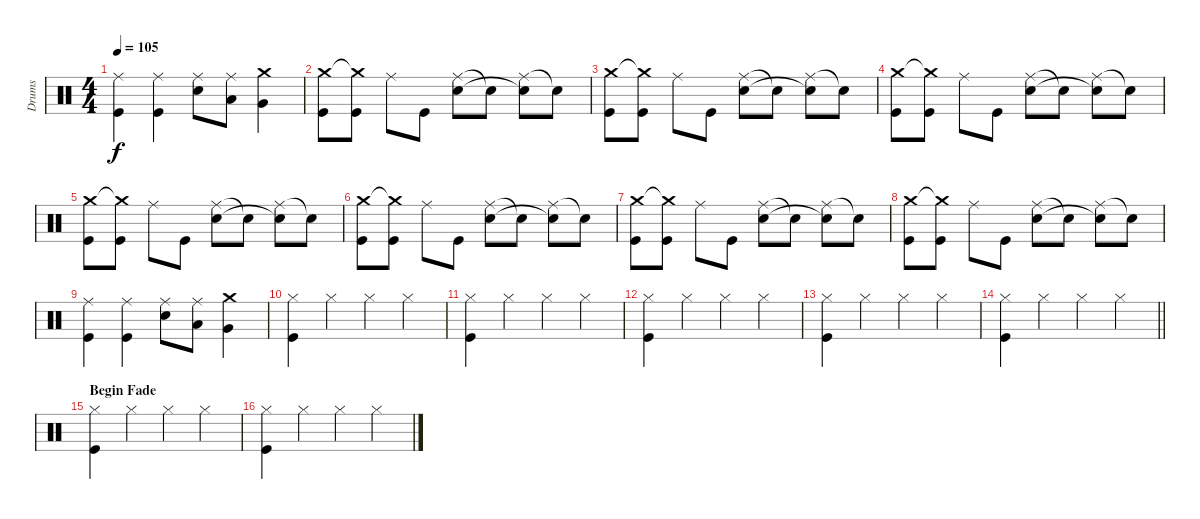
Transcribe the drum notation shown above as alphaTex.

\track ("Drums" "Drums") {instrument percussion}
\staff {score}
\articulation defaults
\ts (4 4)
\tempo 105
\clef neutral
\ks c
("Ride (middle)" "Kick (hit)").4{dy f} ("Ride (middle)" "Kick (hit)").4 ("Ride (middle)" "Snare (hit) 2").8 ("Ride (middle)" "Low Tom (hit)").8 ("Crash medium (hit)" "Very Low Tom (hit)").4 |
("Crash medium (hit)" "Kick (hit)").8 ("Crash medium (hit)"{t} "Kick (hit)").8 "Ride (middle)".8 "Kick (hit)".8 ("Ride (middle)" "Snare (hit) 2").8 "Snare (hit) 2"{t}.8 ("Ride (middle)" "Snare (hit) 2"{t}).8 "Snare (hit) 2"{t}.8 |
("Crash medium (hit)" "Kick (hit)").8 ("Crash medium (hit)"{t} "Kick (hit)").8 "Ride (middle)".8 "Kick (hit)".8 ("Ride (middle)" "Snare (hit) 2").8 "Snare (hit) 2"{t}.8 ("Ride (middle)" "Snare (hit) 2"{t}).8 "Snare (hit) 2"{t}.8 |
("Crash medium (hit)" "Kick (hit)").8 ("Crash medium (hit)"{t} "Kick (hit)").8 "Ride (middle)".8 "Kick (hit)".8 ("Ride (middle)" "Snare (hit) 2").8 "Snare (hit) 2"{t}.8 ("Ride (middle)" "Snare (hit) 2"{t}).8 "Snare (hit) 2"{t}.8 |
("Crash medium (hit)" "Kick (hit)").8 ("Crash medium (hit)"{t} "Kick (hit)").8 "Ride (middle)".8 "Kick (hit)".8 ("Ride (middle)" "Snare (hit) 2").8 "Snare (hit) 2"{t}.8 ("Ride (middle)" "Snare (hit) 2"{t}).8 "Snare (hit) 2"{t}.8 |
("Crash medium (hit)" "Kick (hit)").8 ("Crash medium (hit)"{t} "Kick (hit)").8 "Ride (middle)".8 "Kick (hit)".8 ("Ride (middle)" "Snare (hit) 2").8 "Snare (hit) 2"{t}.8 ("Ride (middle)" "Snare (hit) 2"{t}).8 "Snare (hit) 2"{t}.8 |
("Crash medium (hit)" "Kick (hit)").8 ("Crash medium (hit)"{t} "Kick (hit)").8 "Ride (middle)".8 "Kick (hit)".8 ("Ride (middle)" "Snare (hit) 2").8 "Snare (hit) 2"{t}.8 ("Ride (middle)" "Snare (hit) 2"{t}).8 "Snare (hit) 2"{t}.8 |
("Crash medium (hit)" "Kick (hit)").8 ("Crash medium (hit)"{t} "Kick (hit)").8 "Ride (middle)".8 "Kick (hit)".8 ("Ride (middle)" "Snare (hit) 2").8 "Snare (hit) 2"{t}.8 ("Ride (middle)" "Snare (hit) 2"{t}).8 "Snare (hit) 2"{t}.8 |
("Ride (middle)" "Kick (hit)").4 ("Ride (middle)" "Kick (hit)").4 ("Ride (middle)" "Snare (hit) 2").8 ("Ride (middle)" "Low Tom (hit)").8 ("Crash medium (hit)" "Very Low Tom (hit)").4 |
("Hi-Hat (closed)" "Kick (hit)").4 "Hi-Hat (closed)".4 "Hi-Hat (closed)".4 "Hi-Hat (closed)".4 |
("Hi-Hat (closed)" "Kick (hit)").4 "Hi-Hat (closed)".4 "Hi-Hat (closed)".4 "Hi-Hat (closed)".4 |
("Hi-Hat (closed)" "Kick (hit)").4 "Hi-Hat (closed)".4 "Hi-Hat (closed)".4 "Hi-Hat (closed)".4 |
("Hi-Hat (closed)" "Kick (hit)").4 "Hi-Hat (closed)".4 "Hi-Hat (closed)".4 "Hi-Hat (closed)".4 |
\barLineRight lightlight
("Hi-Hat (closed)" "Kick (hit)").4 "Hi-Hat (closed)".4 "Hi-Hat (closed)".4 "Hi-Hat (closed)".4 |
\section ("" "Begin Fade")
("Hi-Hat (closed)" "Kick (hit)").4{volume 3} "Hi-Hat (closed)".4 "Hi-Hat (closed)".4 "Hi-Hat (closed)".4 |
("Hi-Hat (closed)" "Kick (hit)").4 "Hi-Hat (closed)".4 "Hi-Hat (closed)".4 "Hi-Hat (closed)".4
